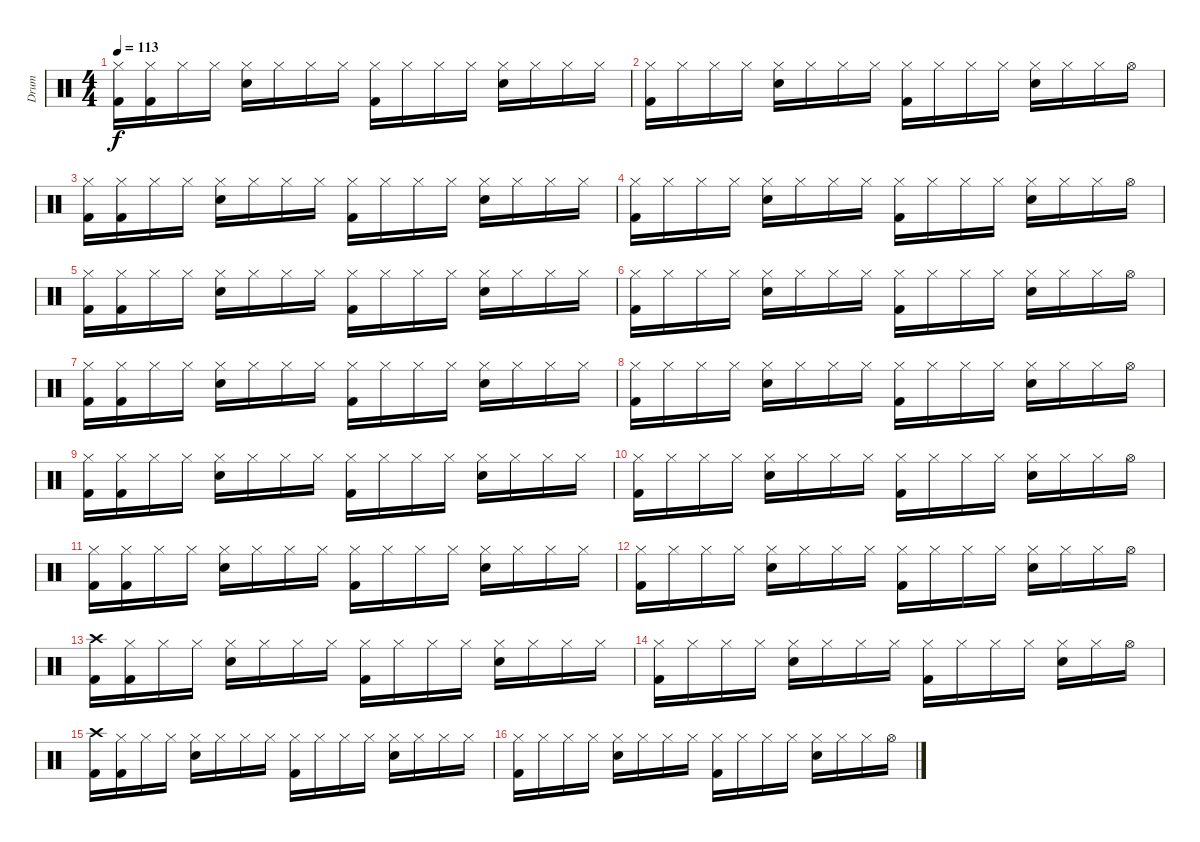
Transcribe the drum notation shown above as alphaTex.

\track ("Drum" "Drum") {instrument percussion}
\staff {score}
\articulation defaults
\ts (4 4)
\tempo 113
\clef neutral
\ks c
("Hi-Hat (closed)" "Kick (hit) 2").16{dy f} ("Hi-Hat (closed)" "Kick (hit) 2").16 "Hi-Hat (closed)".16 "Hi-Hat (closed)".16 ("Hi-Hat (closed)" "Snare (hit) 2").16 "Hi-Hat (closed)".16 "Hi-Hat (closed)".16 "Hi-Hat (closed)".16 ("Hi-Hat (closed)" "Kick (hit) 2").16 "Hi-Hat (closed)".16 "Hi-Hat (closed)".16 "Hi-Hat (closed)".16 ("Hi-Hat (closed)" "Snare (hit) 2").16 "Hi-Hat (closed)".16 "Hi-Hat (closed)".16 "Hi-Hat (closed)".16 |
("Hi-Hat (closed)" "Kick (hit) 2").16 "Hi-Hat (closed)".16 "Hi-Hat (closed)".16 "Hi-Hat (closed)".16 ("Hi-Hat (closed)" "Snare (hit) 2").16 "Hi-Hat (closed)".16 "Hi-Hat (closed)".16 "Hi-Hat (closed)".16 ("Hi-Hat (closed)" "Kick (hit) 2").16 "Hi-Hat (closed)".16 "Hi-Hat (closed)".16 "Hi-Hat (closed)".16 ("Hi-Hat (closed)" "Snare (hit) 2").16 "Hi-Hat (closed)".16 "Hi-Hat (closed)".16 "Hi-Hat (open)".16 |
("Hi-Hat (closed)" "Kick (hit) 2").16 ("Hi-Hat (closed)" "Kick (hit) 2").16 "Hi-Hat (closed)".16 "Hi-Hat (closed)".16 ("Hi-Hat (closed)" "Snare (hit) 2").16 "Hi-Hat (closed)".16 "Hi-Hat (closed)".16 "Hi-Hat (closed)".16 ("Hi-Hat (closed)" "Kick (hit) 2").16 "Hi-Hat (closed)".16 "Hi-Hat (closed)".16 "Hi-Hat (closed)".16 ("Hi-Hat (closed)" "Snare (hit) 2").16 "Hi-Hat (closed)".16 "Hi-Hat (closed)".16 "Hi-Hat (closed)".16 |
("Hi-Hat (closed)" "Kick (hit) 2").16 "Hi-Hat (closed)".16 "Hi-Hat (closed)".16 "Hi-Hat (closed)".16 ("Hi-Hat (closed)" "Snare (hit) 2").16 "Hi-Hat (closed)".16 "Hi-Hat (closed)".16 "Hi-Hat (closed)".16 ("Hi-Hat (closed)" "Kick (hit) 2").16 "Hi-Hat (closed)".16 "Hi-Hat (closed)".16 "Hi-Hat (closed)".16 ("Hi-Hat (closed)" "Snare (hit) 2").16 "Hi-Hat (closed)".16 "Hi-Hat (closed)".16 "Hi-Hat (open)".16 |
("Hi-Hat (closed)" "Kick (hit) 2").16 ("Hi-Hat (closed)" "Kick (hit) 2").16 "Hi-Hat (closed)".16 "Hi-Hat (closed)".16 ("Hi-Hat (closed)" "Snare (hit) 2").16 "Hi-Hat (closed)".16 "Hi-Hat (closed)".16 "Hi-Hat (closed)".16 ("Hi-Hat (closed)" "Kick (hit) 2").16 "Hi-Hat (closed)".16 "Hi-Hat (closed)".16 "Hi-Hat (closed)".16 ("Hi-Hat (closed)" "Snare (hit) 2").16 "Hi-Hat (closed)".16 "Hi-Hat (closed)".16 "Hi-Hat (closed)".16 |
("Hi-Hat (closed)" "Kick (hit) 2").16 "Hi-Hat (closed)".16 "Hi-Hat (closed)".16 "Hi-Hat (closed)".16 ("Hi-Hat (closed)" "Snare (hit) 2").16 "Hi-Hat (closed)".16 "Hi-Hat (closed)".16 "Hi-Hat (closed)".16 ("Hi-Hat (closed)" "Kick (hit) 2").16 "Hi-Hat (closed)".16 "Hi-Hat (closed)".16 "Hi-Hat (closed)".16 ("Hi-Hat (closed)" "Snare (hit) 2").16 "Hi-Hat (closed)".16 "Hi-Hat (closed)".16 "Hi-Hat (open)".16 |
("Hi-Hat (closed)" "Kick (hit) 2").16 ("Hi-Hat (closed)" "Kick (hit) 2").16 "Hi-Hat (closed)".16 "Hi-Hat (closed)".16 ("Hi-Hat (closed)" "Snare (hit) 2").16 "Hi-Hat (closed)".16 "Hi-Hat (closed)".16 "Hi-Hat (closed)".16 ("Hi-Hat (closed)" "Kick (hit) 2").16 "Hi-Hat (closed)".16 "Hi-Hat (closed)".16 "Hi-Hat (closed)".16 ("Hi-Hat (closed)" "Snare (hit) 2").16 "Hi-Hat (closed)".16 "Hi-Hat (closed)".16 "Hi-Hat (closed)".16 |
("Hi-Hat (closed)" "Kick (hit) 2").16 "Hi-Hat (closed)".16 "Hi-Hat (closed)".16 "Hi-Hat (closed)".16 ("Hi-Hat (closed)" "Snare (hit) 2").16 "Hi-Hat (closed)".16 "Hi-Hat (closed)".16 "Hi-Hat (closed)".16 ("Hi-Hat (closed)" "Kick (hit) 2").16 "Hi-Hat (closed)".16 "Hi-Hat (closed)".16 "Hi-Hat (closed)".16 ("Hi-Hat (closed)" "Snare (hit) 2").16 "Hi-Hat (closed)".16 "Hi-Hat (closed)".16 "Hi-Hat (open)".16 |
("Hi-Hat (closed)" "Kick (hit) 2").16 ("Hi-Hat (closed)" "Kick (hit) 2").16 "Hi-Hat (closed)".16 "Hi-Hat (closed)".16 ("Hi-Hat (closed)" "Snare (hit) 2").16 "Hi-Hat (closed)".16 "Hi-Hat (closed)".16 "Hi-Hat (closed)".16 ("Hi-Hat (closed)" "Kick (hit) 2").16 "Hi-Hat (closed)".16 "Hi-Hat (closed)".16 "Hi-Hat (closed)".16 ("Hi-Hat (closed)" "Snare (hit) 2").16 "Hi-Hat (closed)".16 "Hi-Hat (closed)".16 "Hi-Hat (closed)".16 |
("Hi-Hat (closed)" "Kick (hit) 2").16 "Hi-Hat (closed)".16 "Hi-Hat (closed)".16 "Hi-Hat (closed)".16 ("Hi-Hat (closed)" "Snare (hit) 2").16 "Hi-Hat (closed)".16 "Hi-Hat (closed)".16 "Hi-Hat (closed)".16 ("Hi-Hat (closed)" "Kick (hit) 2").16 "Hi-Hat (closed)".16 "Hi-Hat (closed)".16 "Hi-Hat (closed)".16 ("Hi-Hat (closed)" "Snare (hit) 2").16 "Hi-Hat (closed)".16 "Hi-Hat (closed)".16 "Hi-Hat (open)".16 |
("Hi-Hat (closed)" "Kick (hit) 2").16 ("Hi-Hat (closed)" "Kick (hit) 2").16 "Hi-Hat (closed)".16 "Hi-Hat (closed)".16 ("Hi-Hat (closed)" "Snare (hit) 2").16 "Hi-Hat (closed)".16 "Hi-Hat (closed)".16 "Hi-Hat (closed)".16 ("Hi-Hat (closed)" "Kick (hit) 2").16 "Hi-Hat (closed)".16 "Hi-Hat (closed)".16 "Hi-Hat (closed)".16 ("Hi-Hat (closed)" "Snare (hit) 2").16 "Hi-Hat (closed)".16 "Hi-Hat (closed)".16 "Hi-Hat (closed)".16 |
("Hi-Hat (closed)" "Kick (hit) 2").16 "Hi-Hat (closed)".16 "Hi-Hat (closed)".16 "Hi-Hat (closed)".16 ("Hi-Hat (closed)" "Snare (hit) 2").16 "Hi-Hat (closed)".16 "Hi-Hat (closed)".16 "Hi-Hat (closed)".16 ("Hi-Hat (closed)" "Kick (hit) 2").16 "Hi-Hat (closed)".16 "Hi-Hat (closed)".16 "Hi-Hat (closed)".16 ("Hi-Hat (closed)" "Snare (hit) 2").16 "Hi-Hat (closed)".16 "Hi-Hat (closed)".16 "Hi-Hat (open)".16 |
("Crash high (hit)" "Kick (hit) 2").16 ("Hi-Hat (closed)" "Kick (hit) 2").16 "Hi-Hat (closed)".16 "Hi-Hat (closed)".16 ("Hi-Hat (closed)" "Snare (hit) 2").16 "Hi-Hat (closed)".16 "Hi-Hat (closed)".16 "Hi-Hat (closed)".16 ("Hi-Hat (closed)" "Kick (hit) 2").16 "Hi-Hat (closed)".16 "Hi-Hat (closed)".16 "Hi-Hat (closed)".16 ("Hi-Hat (closed)" "Snare (hit) 2").16 "Hi-Hat (closed)".16 "Hi-Hat (closed)".16 "Hi-Hat (closed)".16 |
("Hi-Hat (closed)" "Kick (hit) 2").16 "Hi-Hat (closed)".16 "Hi-Hat (closed)".16 "Hi-Hat (closed)".16 ("Hi-Hat (closed)" "Snare (hit) 2").16 "Hi-Hat (closed)".16 "Hi-Hat (closed)".16 "Hi-Hat (closed)".16 ("Hi-Hat (closed)" "Kick (hit) 2").16 "Hi-Hat (closed)".16 "Hi-Hat (closed)".16 "Hi-Hat (closed)".16 ("Hi-Hat (closed)" "Snare (hit) 2").16 "Hi-Hat (closed)".16 "Hi-Hat (open)".16 |
("Crash high (hit)" "Kick (hit) 2").16 ("Hi-Hat (closed)" "Kick (hit) 2").16 "Hi-Hat (closed)".16 "Hi-Hat (closed)".16 ("Hi-Hat (closed)" "Snare (hit) 2").16 "Hi-Hat (closed)".16 "Hi-Hat (closed)".16 "Hi-Hat (closed)".16 ("Hi-Hat (closed)" "Kick (hit) 2").16 "Hi-Hat (closed)".16 "Hi-Hat (closed)".16 "Hi-Hat (closed)".16 ("Hi-Hat (closed)" "Snare (hit) 2").16 "Hi-Hat (closed)".16 "Hi-Hat (closed)".16 "Hi-Hat (closed)".16 |
("Hi-Hat (closed)" "Kick (hit) 2").16 "Hi-Hat (closed)".16 "Hi-Hat (closed)".16 "Hi-Hat (closed)".16 ("Hi-Hat (closed)" "Snare (hit) 2").16 "Hi-Hat (closed)".16 "Hi-Hat (closed)".16 "Hi-Hat (closed)".16 ("Hi-Hat (closed)" "Kick (hit) 2").16 "Hi-Hat (closed)".16 "Hi-Hat (closed)".16 "Hi-Hat (closed)".16 ("Hi-Hat (closed)" "Snare (hit) 2").16 "Hi-Hat (closed)".16 "Hi-Hat (closed)".16 "Hi-Hat (open)".16
